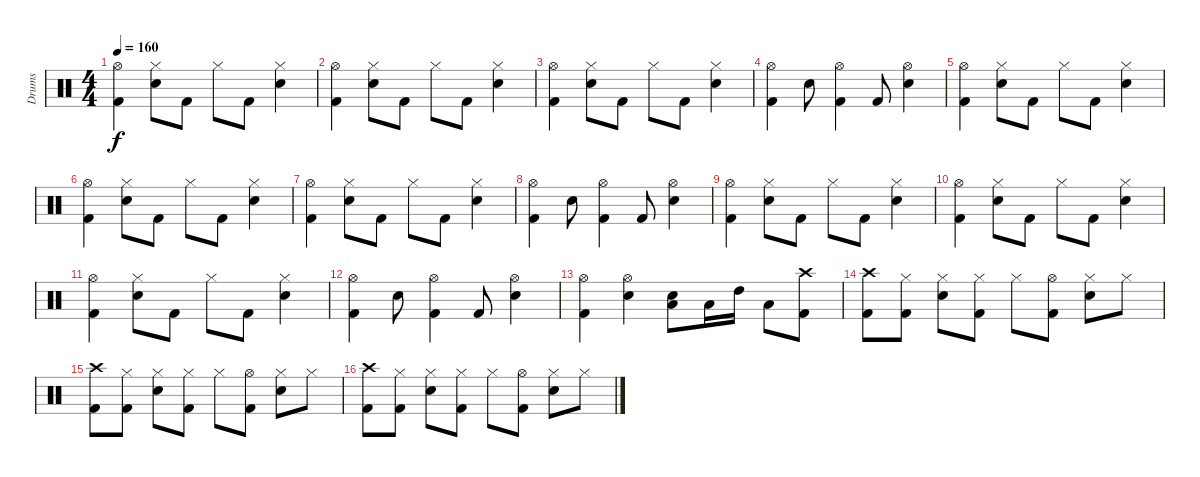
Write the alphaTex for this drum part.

\track ("Drums" "Drums") {instrument percussion}
\staff {score}
\articulation defaults
\ts (4 4)
\tempo 160
\clef neutral
\ks c
("Hi-Hat (open)" "Kick (hit) 2").4{dy f} ("Hi-Hat (closed)" "Snare (hit) 2").8 "Kick (hit) 2".8 "Hi-Hat (closed)".8 "Kick (hit) 2".8 ("Hi-Hat (closed)" "Snare (hit) 2").4 |
("Hi-Hat (open)" "Kick (hit) 2").4 ("Hi-Hat (closed)" "Snare (hit) 2").8 "Kick (hit) 2".8 "Hi-Hat (closed)".8 "Kick (hit) 2".8 ("Hi-Hat (closed)" "Snare (hit) 2").4 |
("Hi-Hat (open)" "Kick (hit) 2").4 ("Hi-Hat (closed)" "Snare (hit) 2").8 "Kick (hit) 2".8 "Hi-Hat (closed)".8 "Kick (hit) 2".8 ("Hi-Hat (closed)" "Snare (hit) 2").4 |
("Hi-Hat (open)" "Kick (hit) 2").4 "Snare (hit) 2".8 ("Hi-Hat (open)" "Kick (hit) 2").4 "Kick (hit) 2".8 ("Hi-Hat (open)" "Snare (hit) 2").4 |
("Hi-Hat (open)" "Kick (hit) 2").4 ("Hi-Hat (closed)" "Snare (hit) 2").8 "Kick (hit) 2".8 "Hi-Hat (closed)".8 "Kick (hit) 2".8 ("Hi-Hat (closed)" "Snare (hit) 2").4 |
("Hi-Hat (open)" "Kick (hit) 2").4 ("Hi-Hat (closed)" "Snare (hit) 2").8 "Kick (hit) 2".8 "Hi-Hat (closed)".8 "Kick (hit) 2".8 ("Hi-Hat (closed)" "Snare (hit) 2").4 |
("Hi-Hat (open)" "Kick (hit) 2").4 ("Hi-Hat (closed)" "Snare (hit) 2").8 "Kick (hit) 2".8 "Hi-Hat (closed)".8 "Kick (hit) 2".8 ("Hi-Hat (closed)" "Snare (hit) 2").4 |
("Hi-Hat (open)" "Kick (hit) 2").4 "Snare (hit) 2".8 ("Hi-Hat (open)" "Kick (hit) 2").4 "Kick (hit) 2".8 ("Hi-Hat (open)" "Snare (hit) 2").4 |
("Hi-Hat (open)" "Kick (hit) 2").4 ("Hi-Hat (closed)" "Snare (hit) 2").8 "Kick (hit) 2".8 "Hi-Hat (closed)".8 "Kick (hit) 2".8 ("Hi-Hat (closed)" "Snare (hit) 2").4 |
("Hi-Hat (open)" "Kick (hit) 2").4 ("Hi-Hat (closed)" "Snare (hit) 2").8 "Kick (hit) 2".8 "Hi-Hat (closed)".8 "Kick (hit) 2".8 ("Hi-Hat (closed)" "Snare (hit) 2").4 |
("Hi-Hat (open)" "Kick (hit) 2").4 ("Hi-Hat (closed)" "Snare (hit) 2").8 "Kick (hit) 2".8 "Hi-Hat (closed)".8 "Kick (hit) 2".8 ("Hi-Hat (closed)" "Snare (hit) 2").4 |
("Hi-Hat (open)" "Kick (hit) 2").4 "Snare (hit) 2".8 ("Hi-Hat (open)" "Kick (hit) 2").4 "Kick (hit) 2".8 ("Hi-Hat (open)" "Snare (hit) 2").4 |
("Hi-Hat (open)" "Kick (hit) 2").4 ("Hi-Hat (open)" "Snare (hit) 2").4 ("Snare (hit) 2" "Low Tom (hit)").8 "Low Tom (hit)".16 "High Tom (hit)".16 "Low Tom (hit)".8 ("Crash high (hit)" "Kick (hit) 2").8 |
("Crash high (hit)" "Kick (hit) 2").8 ("Hi-Hat (closed)" "Kick (hit) 2").8 ("Hi-Hat (closed)" "Snare (hit) 2").8 ("Hi-Hat (closed)" "Kick (hit) 2").8 "Hi-Hat (closed)".8 ("Hi-Hat (open)" "Kick (hit) 2").8 ("Hi-Hat (closed)" "Snare (hit) 2").8 "Hi-Hat (closed)".8 |
("Crash high (hit)" "Kick (hit) 2").8 ("Hi-Hat (closed)" "Kick (hit) 2").8 ("Hi-Hat (closed)" "Snare (hit) 2").8 ("Hi-Hat (closed)" "Kick (hit) 2").8 "Hi-Hat (closed)".8 ("Hi-Hat (open)" "Kick (hit) 2").8 ("Hi-Hat (closed)" "Snare (hit) 2").8 "Hi-Hat (closed)".8 |
("Crash high (hit)" "Kick (hit) 2").8 ("Hi-Hat (closed)" "Kick (hit) 2").8 ("Hi-Hat (closed)" "Snare (hit) 2").8 ("Hi-Hat (closed)" "Kick (hit) 2").8 "Hi-Hat (closed)".8 ("Hi-Hat (open)" "Kick (hit) 2").8 ("Hi-Hat (closed)" "Snare (hit) 2").8 "Hi-Hat (closed)".8
